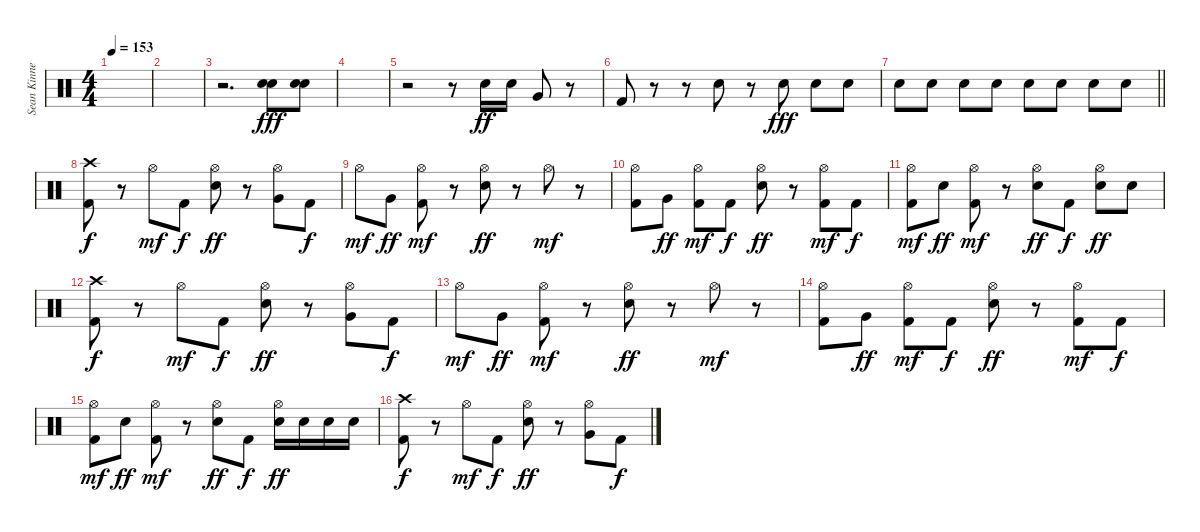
\track ("Sean Kinney - Drums" "Sean Kinne") {instrument percussion}
\staff {score}
\articulation defaults
\ts (4 4)
\tempo 153
\clef neutral
\ks c
|
|
r.2{d} ("Snare (hit) 2" "Snare (hit) 2").8{dy fff} ("Snare (hit) 2" "Snare (hit) 2").8 |
|
r.2 r.8 "Snare (hit) 2".16{dy ff} "Snare (hit) 2".16 "Very Low Tom (hit)".8 r.8 |
"Kick (hit) 2".8 r.8 r.8 "Snare (hit) 2".8 r.8 "Snare (hit) 2".8{dy fff} "Snare (hit) 2".8 "Snare (hit) 2".8 |
\barLineRight lightlight "Snare (hit) 2".8 "Snare (hit) 2".8 "Snare (hit) 2".8 "Snare (hit) 2".8 "Snare (hit) 2".8 "Snare (hit) 2".8 "Snare (hit) 2".8 "Snare (hit) 2".8
|
\section ("" "")
("Crash high (hit)" "Kick (hit) 2").8{dy f} r.8 "Hi-Hat (open)".8{dy mf} "Kick (hit) 2".8{dy f} ("Hi-Hat (open)" "Snare (hit) 2").8{dy ff} r.8 ("Hi-Hat (open)" "Very Low Tom (hit)").8 "Kick (hit) 2".8{dy f} |
"Hi-Hat (open)".8{dy mf} "Very Low Tom (hit)".8{dy ff} ("Hi-Hat (open)" "Kick (hit) 2").8{dy mf} r.8 ("Hi-Hat (open)" "Snare (hit) 2").8{dy ff} r.8 "Hi-Hat (open)".8{dy mf} r.8 |
("Hi-Hat (open)" "Kick (hit) 2").8 "Very Low Tom (hit)".8{dy ff} ("Hi-Hat (open)" "Kick (hit) 2").8{dy mf} "Kick (hit) 2".8{dy f} ("Hi-Hat (open)" "Snare (hit) 2").8{dy ff} r.8 ("Hi-Hat (open)" "Kick (hit) 2").8{dy mf} "Kick (hit) 2".8{dy f} |
("Hi-Hat (open)" "Kick (hit) 2").8{dy mf} "Snare (hit) 2".8{dy ff} ("Hi-Hat (open)" "Kick (hit) 2").8{dy mf} r.8 ("Hi-Hat (open)" "Snare (hit) 2").8{dy ff} "Kick (hit) 2".8{dy f} ("Hi-Hat (open)" "Snare (hit) 2").8{dy ff} "Snare (hit) 2".8 |
("Crash high (hit)" "Kick (hit) 2").8{dy f} r.8 "Hi-Hat (open)".8{dy mf} "Kick (hit) 2".8{dy f} ("Hi-Hat (open)" "Snare (hit) 2").8{dy ff} r.8 ("Hi-Hat (open)" "Very Low Tom (hit)").8 "Kick (hit) 2".8{dy f} |
"Hi-Hat (open)".8{dy mf} "Very Low Tom (hit)".8{dy ff} ("Hi-Hat (open)" "Kick (hit) 2").8{dy mf} r.8 ("Hi-Hat (open)" "Snare (hit) 2").8{dy ff} r.8 "Hi-Hat (open)".8{dy mf} r.8 |
("Hi-Hat (open)" "Kick (hit) 2").8 "Very Low Tom (hit)".8{dy ff} ("Hi-Hat (open)" "Kick (hit) 2").8{dy mf} "Kick (hit) 2".8{dy f} ("Hi-Hat (open)" "Snare (hit) 2").8{dy ff} r.8 ("Hi-Hat (open)" "Kick (hit) 2").8{dy mf} "Kick (hit) 2".8{dy f} |
("Hi-Hat (open)" "Kick (hit) 2").8{dy mf} "Snare (hit) 2".8{dy ff} ("Hi-Hat (open)" "Kick (hit) 2").8{dy mf} r.8 ("Hi-Hat (open)" "Snare (hit) 2").8{dy ff} "Kick (hit) 2".8{dy f} ("Hi-Hat (open)" "Snare (hit) 2").16{dy ff} "Snare (hit) 2".16 "Snare (hit) 2".16 "Snare (hit) 2".16 |
("Crash high (hit)" "Kick (hit) 2").8{dy f} r.8 "Hi-Hat (open)".8{dy mf} "Kick (hit) 2".8{dy f} ("Hi-Hat (open)" "Snare (hit) 2").8{dy ff} r.8 ("Hi-Hat (open)" "Very Low Tom (hit)").8 "Kick (hit) 2".8{dy f}
